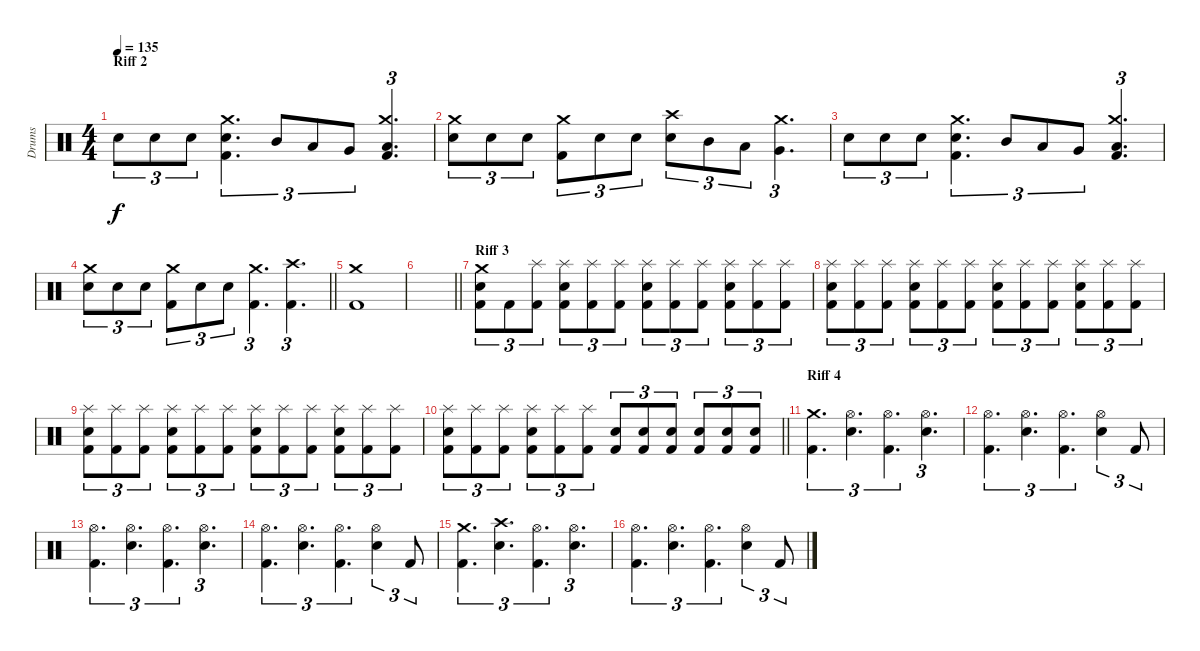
\track ("Drums" "Drums") {instrument percussion}
\staff {score}
\articulation defaults
\ts (4 4)
\section ("" "Riff 2")
\tempo 135
\clef neutral
\ks c "Snare (hit) 2".8{tu (3 2) dy f} "Snare (hit) 2".8{tu (3 2)} "Snare (hit) 2".8{tu (3 2)}
("Kick (hit) 2" "Snare (hit) 2" "Crash medium (hit)").4{d tu (3 2)} "Mid Tom (hit)".8{tu (3 2)} "Low Tom (hit)".8{tu (3 2)} "Very Low Tom (hit)".8{tu (3 2)} ("Kick (hit) 2" "Low Floor Tom (hit)" "Crash medium (hit)").4{d tu (3 2)} |
("Snare (hit) 2" "Crash medium (hit)").8{tu (3 2)} "Snare (hit) 2".8{tu (3 2)} "Snare (hit) 2".8{tu (3 2)} ("Kick (hit) 2" "Crash medium (hit)").8{tu (3 2)} "Snare (hit) 2".8{tu (3 2)} "Snare (hit) 2".8{tu (3 2)} ("Snare (hit) 2" "Crash high (hit)").8{tu (3 2)} "Mid Tom (hit)".8{tu (3 2)} "Low Tom (hit)".8{tu (3 2)} ("Very Low Tom (hit)" "Crash medium (hit)").4{d tu (3 2)} |
"Snare (hit) 2".8{tu (3 2)} "Snare (hit) 2".8{tu (3 2)} "Snare (hit) 2".8{tu (3 2)} ("Kick (hit) 2" "Snare (hit) 2" "Crash medium (hit)").4{d tu (3 2)} "Mid Tom (hit)".8{tu (3 2)} "Low Tom (hit)".8{tu (3 2)} "Very Low Tom (hit)".8{tu (3 2)} ("Kick (hit) 2" "Low Floor Tom (hit)" "Crash medium (hit)").4{d tu (3 2)} |
\barLineRight lightlight
("Snare (hit) 2" "Crash medium (hit)").8{tu (3 2)} "Snare (hit) 2".8{tu (3 2)} "Snare (hit) 2".8{tu (3 2)} ("Kick (hit) 2" "Crash medium (hit)").8{tu (3 2)} "Snare (hit) 2".8{tu (3 2)} "Snare (hit) 2".8{tu (3 2)} ("Kick (hit) 2" "Crash medium (hit)").4{d tu (3 2)} ("Kick (hit) 2" "Crash high (hit)").4{d tu (3 2)} |
\section ("" "")
("Kick (hit) 2" "Crash medium (hit)").1 |
\barLineRight lightlight
|
\section ("" "Riff 3")
("Kick (hit) 2" "Snare (hit) 2" "Crash medium (hit)").8{tu (3 2)} "Kick (hit) 2".8{tu (3 2)} ("Kick (hit) 2" "Splash (hit)").8{tu (3 2)} ("Kick (hit) 2" "Snare (hit) 2" "Splash (hit)").8{tu (3 2)} ("Kick (hit) 2" "Splash (hit)").8{tu (3 2)} ("Kick (hit) 2" "Splash (hit)").8{tu (3 2)} ("Kick (hit) 2" "Snare (hit) 2" "Splash (hit)").8{tu (3 2)} ("Kick (hit) 2" "Splash (hit)").8{tu (3 2)} ("Kick (hit) 2" "Splash (hit)").8{tu (3 2)} ("Kick (hit) 2" "Snare (hit) 2" "Splash (hit)").8{tu (3 2)} ("Kick (hit) 2" "Splash (hit)").8{tu (3 2)} ("Kick (hit) 2" "Splash (hit)").8{tu (3 2)} |
("Kick (hit) 2" "Snare (hit) 2" "Splash (hit)").8{tu (3 2)} ("Kick (hit) 2" "Splash (hit)").8{tu (3 2)} ("Kick (hit) 2" "Splash (hit)").8{tu (3 2)} ("Kick (hit) 2" "Snare (hit) 2" "Splash (hit)").8{tu (3 2)} ("Kick (hit) 2" "Splash (hit)").8{tu (3 2)} ("Kick (hit) 2" "Splash (hit)").8{tu (3 2)} ("Kick (hit) 2" "Snare (hit) 2" "Splash (hit)").8{tu (3 2)} ("Kick (hit) 2" "Splash (hit)").8{tu (3 2)} ("Kick (hit) 2" "Splash (hit)").8{tu (3 2)} ("Kick (hit) 2" "Snare (hit) 2" "Splash (hit)").8{tu (3 2)} ("Kick (hit) 2" "Splash (hit)").8{tu (3 2)} ("Kick (hit) 2" "Splash (hit)").8{tu (3 2)} |
("Kick (hit) 2" "Snare (hit) 2" "Splash (hit)").8{tu (3 2)} ("Kick (hit) 2" "Splash (hit)").8{tu (3 2)} ("Kick (hit) 2" "Splash (hit)").8{tu (3 2)} ("Kick (hit) 2" "Snare (hit) 2" "Splash (hit)").8{tu (3 2)} ("Kick (hit) 2" "Splash (hit)").8{tu (3 2)} ("Kick (hit) 2" "Splash (hit)").8{tu (3 2)} ("Kick (hit) 2" "Snare (hit) 2" "Splash (hit)").8{tu (3 2)} ("Kick (hit) 2" "Splash (hit)").8{tu (3 2)} ("Kick (hit) 2" "Splash (hit)").8{tu (3 2)} ("Kick (hit) 2" "Snare (hit) 2" "Splash (hit)").8{tu (3 2)} ("Kick (hit) 2" "Splash (hit)").8{tu (3 2)} ("Kick (hit) 2" "Splash (hit)").8{tu (3 2)} |
\barLineRight lightlight
("Kick (hit) 2" "Snare (hit) 2" "Splash (hit)").8{tu (3 2)} ("Kick (hit) 2" "Splash (hit)").8{tu (3 2)} ("Kick (hit) 2" "Splash (hit)").8{tu (3 2)} ("Kick (hit) 2" "Snare (hit) 2" "Splash (hit)").8{tu (3 2)} ("Kick (hit) 2" "Splash (hit)").8{tu (3 2)} ("Kick (hit) 2" "Splash (hit)").8{tu (3 2)} ("Kick (hit) 2" "Snare (hit) 2").8{tu (3 2)} ("Kick (hit) 2" "Snare (hit) 2").8{tu (3 2)} ("Kick (hit) 2" "Snare (hit) 2").8{tu (3 2)} ("Kick (hit) 2" "Snare (hit) 2").8{tu (3 2)} ("Kick (hit) 2" "Snare (hit) 2").8{tu (3 2)} ("Kick (hit) 2" "Snare (hit) 2").8{tu (3 2)} |
\section ("" "Riff 4")
("Kick (hit) 2" "Crash medium (hit)").4{d tu (3 2)} ("Snare (hit) 2" "Hi-Hat (open)").4{d tu (3 2)} ("Kick (hit) 2" "Hi-Hat (open)").4{d tu (3 2)} ("Snare (hit) 2" "Hi-Hat (open)").4{d tu (3 2)} |
("Kick (hit) 2" "Hi-Hat (open)").4{d tu (3 2)} ("Snare (hit) 2" "Hi-Hat (open)").4{d tu (3 2)} ("Kick (hit) 2" "Hi-Hat (open)").4{d tu (3 2)} ("Snare (hit) 2" "Hi-Hat (open)").4{tu (3 2)} "Kick (hit) 2".8{tu (3 2)} |
("Kick (hit) 2" "Hi-Hat (open)").4{d tu (3 2)} ("Snare (hit) 2" "Hi-Hat (open)").4{d tu (3 2)} ("Kick (hit) 2" "Hi-Hat (open)").4{d tu (3 2)} ("Snare (hit) 2" "Hi-Hat (open)").4{d tu (3 2)} |
("Kick (hit) 2" "Hi-Hat (open)").4{d tu (3 2)} ("Snare (hit) 2" "Hi-Hat (open)").4{d tu (3 2)} ("Kick (hit) 2" "Hi-Hat (open)").4{d tu (3 2)} ("Snare (hit) 2" "Hi-Hat (open)").4{tu (3 2)} "Kick (hit) 2".8{tu (3 2)} |
("Kick (hit) 2" "Crash medium (hit)").4{d tu (3 2)} ("Snare (hit) 2" "Crash high (hit)").4{d tu (3 2)} ("Kick (hit) 2" "Hi-Hat (open)").4{d tu (3 2)} ("Snare (hit) 2" "Hi-Hat (open)").4{d tu (3 2)} |
("Kick (hit) 2" "Hi-Hat (open)").4{d tu (3 2)} ("Snare (hit) 2" "Hi-Hat (open)").4{d tu (3 2)} ("Kick (hit) 2" "Hi-Hat (open)").4{d tu (3 2)} ("Snare (hit) 2" "Hi-Hat (open)").4{tu (3 2)} "Kick (hit) 2".8{tu (3 2)}
